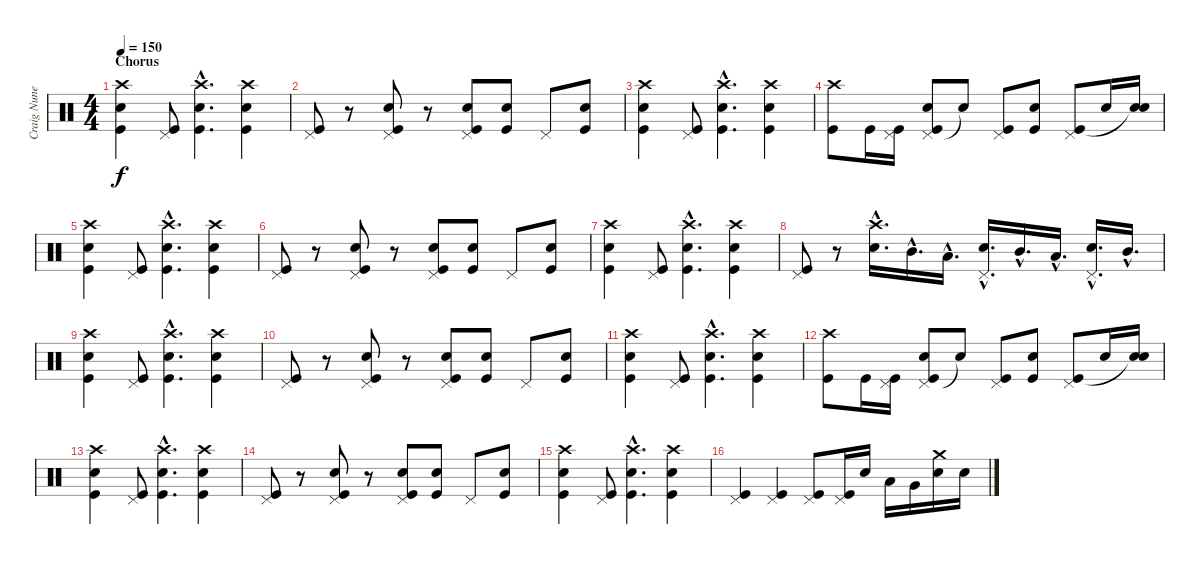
\track ("Craig Nunenmacher" "Craig Nune") {instrument percussion}
\staff {score}
\articulation defaults
\ts (4 4)
\section ("" "Chorus")
\tempo 150
\clef neutral
\ks c
("Crash high (hit)" "Snare (hit) 2" "Kick (hit)").4{dy f} ("Pedal Hi-Hat (hit)" "Kick (hit)").8 ("Crash high (hit)"{hac} "Snare (hit) 2"{hac} "Kick (hit)"{hac}).4{d} ("Crash high (hit)" "Snare (hit) 2" "Kick (hit)").4 |
("Pedal Hi-Hat (hit)" "Kick (hit)").8 r.8 ("Pedal Hi-Hat (hit)" "Snare (hit) 2" "Kick (hit)").8 r.8 ("Pedal Hi-Hat (hit)" "Snare (hit) 2" "Kick (hit)").8 ("Snare (hit) 2" "Kick (hit)").8 "Pedal Hi-Hat (hit)".8 ("Snare (hit) 2" "Kick (hit)").8 |
("Crash high (hit)" "Snare (hit) 2" "Kick (hit)").4 ("Pedal Hi-Hat (hit)" "Kick (hit)").8 ("Crash high (hit)"{hac} "Snare (hit) 2"{hac} "Kick (hit)"{hac}).4{d} ("Crash high (hit)" "Snare (hit) 2" "Kick (hit)").4 |
("Crash high (hit)" "Kick (hit)").8 "Kick (hit)".16 ("Pedal Hi-Hat (hit)" "Kick (hit)").16 ("Pedal Hi-Hat (hit)" "Snare (hit) 2" "Kick (hit)").8 "Snare (hit)"{t}.8 ("Pedal Hi-Hat (hit)" "Kick (hit)").8 ("Snare (hit) 2" "Kick (hit)").8 ("Pedal Hi-Hat (hit)" "Kick (hit)").8 "Snare (hit) 2".16 ("Snare (hit) 2" "Snare (hit)"{t}).16 |
("Crash high (hit)" "Snare (hit) 2" "Kick (hit)").4 ("Pedal Hi-Hat (hit)" "Kick (hit)").8 ("Crash high (hit)"{hac} "Snare (hit) 2"{hac} "Kick (hit)"{hac}).4{d} ("Crash high (hit)" "Snare (hit) 2" "Kick (hit)").4 |
("Pedal Hi-Hat (hit)" "Kick (hit)").8 r.8 ("Pedal Hi-Hat (hit)" "Snare (hit) 2" "Kick (hit)").8 r.8 ("Pedal Hi-Hat (hit)" "Snare (hit) 2" "Kick (hit)").8 ("Snare (hit) 2" "Kick (hit)").8 "Pedal Hi-Hat (hit)".8 ("Snare (hit) 2" "Kick (hit)").8 |
("Crash high (hit)" "Snare (hit) 2" "Kick (hit)").4 ("Pedal Hi-Hat (hit)" "Kick (hit)").8 ("Crash high (hit)"{hac} "Snare (hit) 2"{hac} "Kick (hit)"{hac}).4{d} ("Crash high (hit)" "Snare (hit) 2" "Kick (hit)").4 |
("Pedal Hi-Hat (hit)" "Kick (hit)").8 r.8 ("Crash high (hit)"{hac} "Snare (hit) 2"{hac}).16{d} "Mid Tom (hit)"{hac}.16{d} "Low Tom (hit)"{hac}.16{d} ("Pedal Hi-Hat (hit)"{hac} "Snare (hit) 2"{hac}).16{d} "Mid Tom (hit)"{hac}.16{d} "Low Tom (hit)"{hac}.16{d} ("Pedal Hi-Hat (hit)"{hac} "Snare (hit) 2"{hac}).16{d} "Mid Tom (hit)"{hac}.16{d} |
("Crash high (hit)" "Snare (hit) 2" "Kick (hit)").4 ("Pedal Hi-Hat (hit)" "Kick (hit)").8 ("Crash high (hit)"{hac} "Snare (hit) 2"{hac} "Kick (hit)"{hac}).4{d} ("Crash high (hit)" "Snare (hit) 2" "Kick (hit)").4 |
("Pedal Hi-Hat (hit)" "Kick (hit)").8 r.8 ("Pedal Hi-Hat (hit)" "Snare (hit) 2" "Kick (hit)").8 r.8 ("Pedal Hi-Hat (hit)" "Snare (hit) 2" "Kick (hit)").8 ("Snare (hit) 2" "Kick (hit)").8 "Pedal Hi-Hat (hit)".8 ("Snare (hit) 2" "Kick (hit)").8 |
("Crash high (hit)" "Snare (hit) 2" "Kick (hit)").4 ("Pedal Hi-Hat (hit)" "Kick (hit)").8 ("Crash high (hit)"{hac} "Snare (hit) 2"{hac} "Kick (hit)"{hac}).4{d} ("Crash high (hit)" "Snare (hit) 2" "Kick (hit)").4 |
("Crash high (hit)" "Kick (hit)").8 "Kick (hit)".16 ("Pedal Hi-Hat (hit)" "Kick (hit)").16 ("Pedal Hi-Hat (hit)" "Snare (hit) 2" "Kick (hit)").8 "Snare (hit)"{t}.8 ("Pedal Hi-Hat (hit)" "Kick (hit)").8 ("Snare (hit) 2" "Kick (hit)").8 ("Pedal Hi-Hat (hit)" "Kick (hit)").8 "Snare (hit) 2".16 ("Snare (hit) 2" "Snare (hit)"{t}).16 |
("Crash high (hit)" "Snare (hit) 2" "Kick (hit)").4 ("Pedal Hi-Hat (hit)" "Kick (hit)").8 ("Crash high (hit)"{hac} "Snare (hit) 2"{hac} "Kick (hit)"{hac}).4{d} ("Crash high (hit)" "Snare (hit) 2" "Kick (hit)").4 |
("Pedal Hi-Hat (hit)" "Kick (hit)").8 r.8 ("Pedal Hi-Hat (hit)" "Snare (hit) 2" "Kick (hit)").8 r.8 ("Pedal Hi-Hat (hit)" "Snare (hit) 2" "Kick (hit)").8 ("Snare (hit) 2" "Kick (hit)").8 "Pedal Hi-Hat (hit)".8 ("Snare (hit) 2" "Kick (hit)").8 |
("Crash high (hit)" "Snare (hit) 2" "Kick (hit)").4 ("Pedal Hi-Hat (hit)" "Kick (hit)").8 ("Crash high (hit)"{hac} "Snare (hit) 2"{hac} "Kick (hit)"{hac}).4{d} ("Crash high (hit)" "Snare (hit) 2" "Kick (hit)").4 |
("Pedal Hi-Hat (hit)" "Kick (hit)").4 ("Pedal Hi-Hat (hit)" "Kick (hit)").4 ("Pedal Hi-Hat (hit)" "Kick (hit)").8 ("Pedal Hi-Hat (hit)" "Kick (hit)").16 "Snare (hit) 2".16 "Low Tom (hit)".16 "Very Low Tom (hit)".16 ("Crash medium (hit)" "Snare (hit) 2").16 "Snare (hit) 2".16
